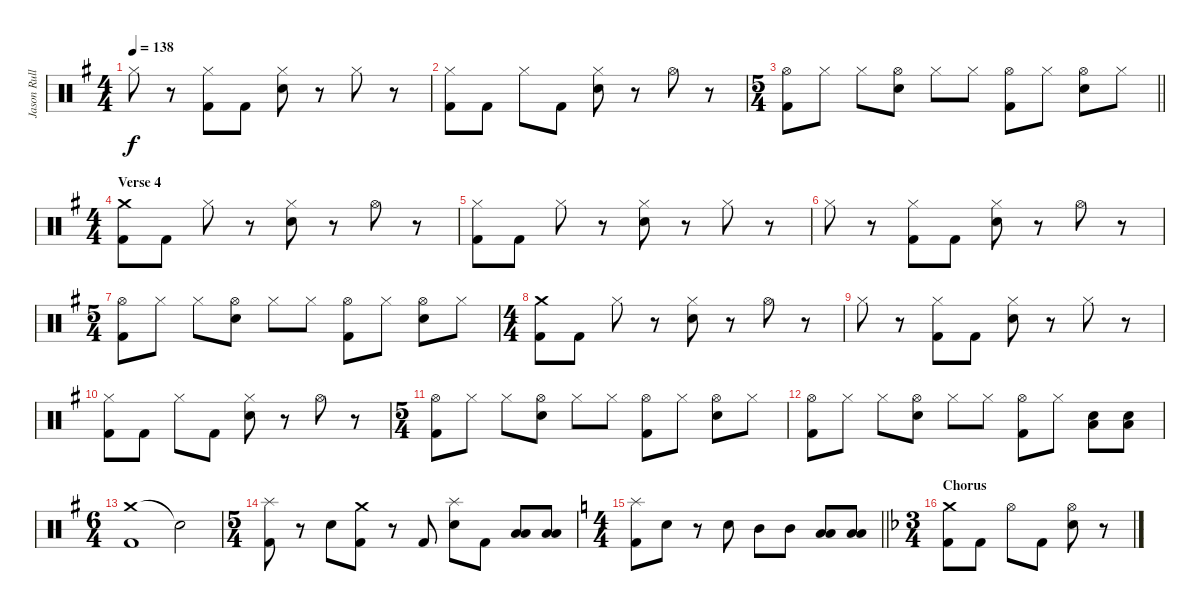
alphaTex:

\track ("Jason Rullo (drums)" "Jason Rull") {instrument percussion}
\staff {score}
\articulation defaults
\ts (4 4)
\tempo 138
\clef neutral
\ks eminor "Hi-Hat (closed)".8{dy f}
r.8 ("Kick (hit) 2" "Hi-Hat (closed)").8 "Kick (hit) 2".8 ("Hi-Hat (closed)" "Electric Snare (hit)").8 r.8 "Hi-Hat (closed)".8 r.8 |
("Kick (hit) 2" "Hi-Hat (closed)").8 "Kick (hit) 2".8 "Hi-Hat (closed)".8 "Kick (hit) 2".8 ("Hi-Hat (closed)" "Electric Snare (hit)").8 r.8 "Hi-Hat (open)".8 r.8 |
\ts (5 4)
\barLineRight lightlight
("Hi-Hat (open)" "Kick (hit) 2").8 "Hi-Hat (closed)".8 "Hi-Hat (closed)".8 ("Hi-Hat (open)" "Electric Snare (hit)").8 "Hi-Hat (closed)".8 "Hi-Hat (closed)".8 ("Hi-Hat (open)" "Kick (hit) 2").8 "Hi-Hat (closed)".8 ("Hi-Hat (open)" "Electric Snare (hit)").8 "Hi-Hat (closed)".8 |
\ts (4 4)
\section ("" "Verse 4")
("Crash medium (hit)" "Kick (hit) 2").8 "Kick (hit) 2".8 "Hi-Hat (closed)".8 r.8 ("Hi-Hat (closed)" "Electric Snare (hit)").8 r.8 "Hi-Hat (open)".8 r.8 |
("Hi-Hat (closed)" "Kick (hit) 2").8 "Kick (hit) 2".8 "Hi-Hat (closed)".8 r.8 ("Hi-Hat (closed)" "Electric Snare (hit)").8 r.8 "Hi-Hat (closed)".8 r.8 |
"Hi-Hat (closed)".8 r.8 ("Hi-Hat (closed)" "Kick (hit) 2").8 "Kick (hit) 2".8 ("Hi-Hat (closed)" "Electric Snare (hit)").8 r.8 "Hi-Hat (open)".8 r.8 |
\ts (5 4)
("Hi-Hat (open)" "Kick (hit) 2").8 "Hi-Hat (closed)".8 "Hi-Hat (closed)".8 ("Hi-Hat (open)" "Electric Snare (hit)").8 "Hi-Hat (closed)".8 "Hi-Hat (closed)".8 ("Hi-Hat (open)" "Kick (hit) 2").8 "Hi-Hat (closed)".8 ("Hi-Hat (open)" "Electric Snare (hit)").8 "Hi-Hat (closed)".8 |
\ts (4 4)
("Crash medium (hit)" "Kick (hit) 2").8 "Kick (hit) 2".8 "Hi-Hat (closed)".8 r.8 ("Hi-Hat (closed)" "Electric Snare (hit)").8 r.8 "Hi-Hat (open)".8 r.8 |
"Hi-Hat (closed)".8 r.8 ("Kick (hit) 2" "Hi-Hat (closed)").8 "Kick (hit) 2".8 ("Hi-Hat (closed)" "Electric Snare (hit)").8 r.8 "Hi-Hat (closed)".8 r.8 |
("Kick (hit) 2" "Hi-Hat (closed)").8 "Kick (hit) 2".8 "Hi-Hat (closed)".8 "Kick (hit) 2".8 ("Hi-Hat (closed)" "Electric Snare (hit)").8 r.8 "Hi-Hat (open)".8 r.8 |
\ts (5 4)
("Hi-Hat (open)" "Kick (hit) 2").8 "Hi-Hat (closed)".8 "Hi-Hat (closed)".8 ("Hi-Hat (open)" "Electric Snare (hit)").8 "Hi-Hat (closed)".8 "Hi-Hat (closed)".8 ("Hi-Hat (open)" "Kick (hit) 2").8 "Hi-Hat (closed)".8 ("Hi-Hat (open)" "Electric Snare (hit)").8 "Hi-Hat (closed)".8 |
("Hi-Hat (open)" "Kick (hit) 2").8 "Hi-Hat (closed)".8 "Hi-Hat (closed)".8 ("Hi-Hat (open)" "Electric Snare (hit)").8 "Hi-Hat (closed)".8 "Hi-Hat (closed)".8 ("Hi-Hat (open)" "Kick (hit) 2").8 "Hi-Hat (closed)".8 ("Low Tom (hit)" "Electric Snare (hit)").8 ("Low Tom (hit)" "Electric Snare (hit)").8 |
\ts (6 4)
("Crash medium (hit)" "Kick (hit) 2").1 "Snare (hit)"{t}.2 |
\ts (5 4)
("Splash (hit)" "Kick (hit) 2").8 r.8 "Electric Snare (hit)".8 ("Crash medium (hit)" "Kick (hit) 2").8 r.8 "Kick (hit) 2".8 ("Splash (hit)" "Electric Snare (hit)").8 "Kick (hit) 2".8 ("Low Tom (hit)" "Low Floor Tom (hit)").8 ("Low Tom (hit)" "Low Floor Tom (hit)").8 |
\ts (4 4)
\barLineRight lightlight
\ks aminor
("Splash (hit)" "Kick (hit) 2").8 "Electric Snare (hit)".8 r.8 "Electric Snare (hit)".8 "Mid Tom (hit)".8 "Mid Tom (hit)".8 ("Low Floor Tom (hit)" "Low Tom (hit)").8 ("Low Floor Tom (hit)" "Low Tom (hit)").8 |
\ts (3 4)
\section ("" "Chorus")
\ks dminor
("Crash medium (hit)" "Kick (hit) 2").8 "Kick (hit) 2".8 "Hi-Hat (open)".8 "Kick (hit) 2".8 ("Hi-Hat (open)" "Electric Snare (hit)").8 r.8
